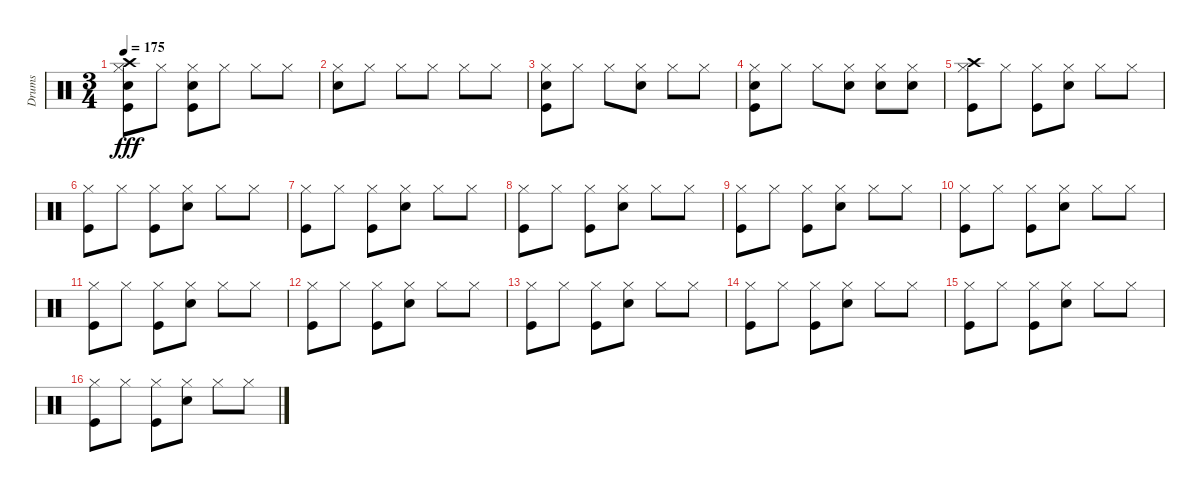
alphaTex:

\track ("Drums" "Drums") {instrument percussion}
\staff {score}
\articulation defaults
\ts (3 4)
\tempo 175
\clef neutral
\ks c
("Hi-Hat (closed)" "Kick (hit)" "Snare (hit) 2" "Crash high (hit)").8{dy fff} "Hi-Hat (closed)".8 ("Hi-Hat (closed)" "Kick (hit)" "Snare (hit) 2").8 "Hi-Hat (closed)".8 "Hi-Hat (closed)".8 "Hi-Hat (closed)".8 |
("Hi-Hat (closed)" "Snare (hit) 2").8 "Hi-Hat (closed)".8 "Hi-Hat (closed)".8 "Hi-Hat (closed)".8 "Hi-Hat (closed)".8 "Hi-Hat (closed)".8 |
("Hi-Hat (closed)" "Snare (hit) 2" "Kick (hit)").8 "Hi-Hat (closed)".8 "Hi-Hat (closed)".8 ("Hi-Hat (closed)" "Snare (hit) 2").8 "Hi-Hat (closed)".8 "Hi-Hat (closed)".8 |
("Snare (hit) 2" "Hi-Hat (closed)" "Kick (hit)").8 "Hi-Hat (closed)".8 "Hi-Hat (closed)".8 ("Snare (hit) 2" "Hi-Hat (closed)").8 ("Snare (hit) 2" "Hi-Hat (closed)").8 ("Snare (hit) 2" "Hi-Hat (closed)").8 |
("Kick (hit)" "Crash high (hit)" "Hi-Hat (closed)").8 "Hi-Hat (closed)".8 ("Hi-Hat (closed)" "Kick (hit)").8 ("Hi-Hat (closed)" "Snare (hit) 2").8 "Hi-Hat (closed)".8 "Hi-Hat (closed)".8 |
("Hi-Hat (closed)" "Kick (hit)").8 "Hi-Hat (closed)".8 ("Hi-Hat (closed)" "Kick (hit)").8 ("Hi-Hat (closed)" "Snare (hit) 2").8 "Hi-Hat (closed)".8 "Hi-Hat (closed)".8 |
("Hi-Hat (closed)" "Kick (hit)").8 "Hi-Hat (closed)".8 ("Hi-Hat (closed)" "Kick (hit)").8 ("Hi-Hat (closed)" "Snare (hit) 2").8 "Hi-Hat (closed)".8 "Hi-Hat (closed)".8 |
("Hi-Hat (closed)" "Kick (hit)").8 "Hi-Hat (closed)".8 ("Hi-Hat (closed)" "Kick (hit)").8 ("Hi-Hat (closed)" "Snare (hit) 2").8 "Hi-Hat (closed)".8 "Hi-Hat (closed)".8 |
("Hi-Hat (closed)" "Kick (hit)").8 "Hi-Hat (closed)".8 ("Hi-Hat (closed)" "Kick (hit)").8 ("Hi-Hat (closed)" "Snare (hit) 2").8 "Hi-Hat (closed)".8 "Hi-Hat (closed)".8 |
("Hi-Hat (closed)" "Kick (hit)").8 "Hi-Hat (closed)".8 ("Hi-Hat (closed)" "Kick (hit)").8 ("Hi-Hat (closed)" "Snare (hit) 2").8 "Hi-Hat (closed)".8 "Hi-Hat (closed)".8 |
("Hi-Hat (closed)" "Kick (hit)").8 "Hi-Hat (closed)".8 ("Hi-Hat (closed)" "Kick (hit)").8 ("Hi-Hat (closed)" "Snare (hit) 2").8 "Hi-Hat (closed)".8 "Hi-Hat (closed)".8 |
("Hi-Hat (closed)" "Kick (hit)").8 "Hi-Hat (closed)".8 ("Hi-Hat (closed)" "Kick (hit)").8 ("Hi-Hat (closed)" "Snare (hit) 2").8 "Hi-Hat (closed)".8 "Hi-Hat (closed)".8 |
("Hi-Hat (closed)" "Kick (hit)").8 "Hi-Hat (closed)".8 ("Hi-Hat (closed)" "Kick (hit)").8 ("Hi-Hat (closed)" "Snare (hit) 2").8 "Hi-Hat (closed)".8 "Hi-Hat (closed)".8 |
("Hi-Hat (closed)" "Kick (hit)").8 "Hi-Hat (closed)".8 ("Hi-Hat (closed)" "Kick (hit)").8 ("Hi-Hat (closed)" "Snare (hit) 2").8 "Hi-Hat (closed)".8 "Hi-Hat (closed)".8 |
("Hi-Hat (closed)" "Kick (hit)").8 "Hi-Hat (closed)".8 ("Hi-Hat (closed)" "Kick (hit)").8 ("Hi-Hat (closed)" "Snare (hit) 2").8 "Hi-Hat (closed)".8 "Hi-Hat (closed)".8 |
("Hi-Hat (closed)" "Kick (hit)").8 "Hi-Hat (closed)".8 ("Hi-Hat (closed)" "Kick (hit)").8 ("Hi-Hat (closed)" "Snare (hit) 2").8 "Hi-Hat (closed)".8 "Hi-Hat (closed)".8
